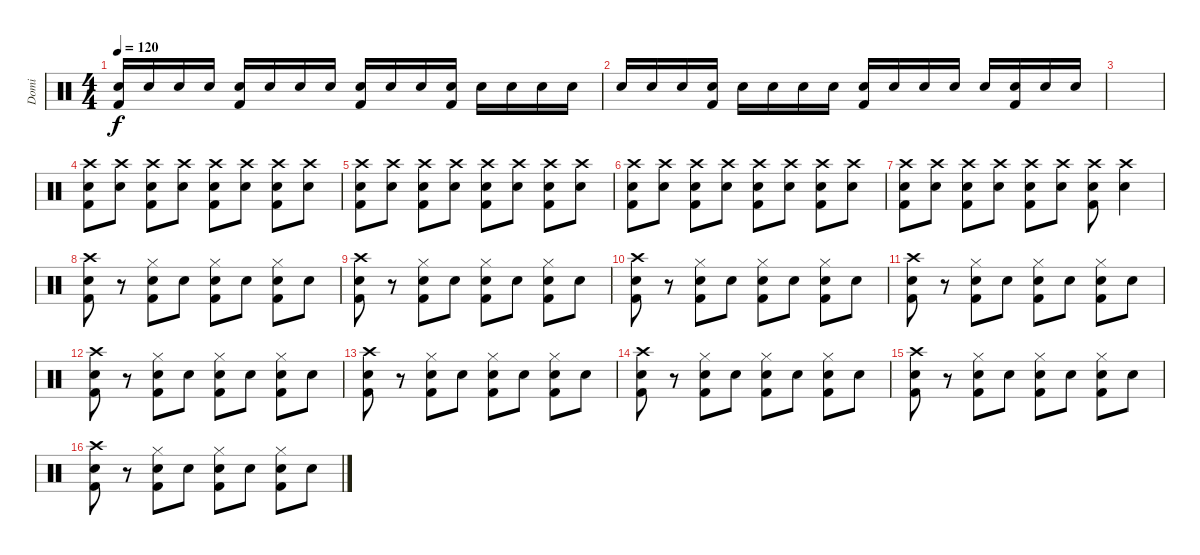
\track ("Domi" "Domi") {instrument percussion}
\staff {score}
\articulation defaults
\ts (4 4)
\tempo 120
\clef neutral
\ks c
("Snare (hit) 2" "Kick (hit) 2").16{dy f} "Snare (hit) 2".16 "Snare (hit) 2".16 "Snare (hit) 2".16 ("Snare (hit) 2" "Kick (hit) 2").16 "Snare (hit) 2".16 "Snare (hit) 2".16 "Snare (hit) 2".16 ("Snare (hit) 2" "Kick (hit) 2").16 "Snare (hit) 2".16 "Snare (hit) 2".16 ("Snare (hit) 2" "Kick (hit) 2").16 "Snare (hit) 2".16 "Snare (hit) 2".16 "Snare (hit) 2".16 "Snare (hit) 2".16 |
"Snare (hit) 2".16 "Snare (hit) 2".16 "Snare (hit) 2".16 ("Snare (hit) 2" "Kick (hit) 2").16 "Snare (hit) 2".16 "Snare (hit) 2".16 "Snare (hit) 2".16 "Snare (hit) 2".16 ("Snare (hit) 2" "Kick (hit) 2").16 "Snare (hit) 2".16 "Snare (hit) 2".16 "Snare (hit) 2".16 "Snare (hit) 2".16 ("Snare (hit) 2" "Kick (hit) 2").16 "Snare (hit) 2".16 "Snare (hit) 2".16 |
|
("Crash high (hit)" "Snare (hit) 2" "Kick (hit) 2").8 ("Crash high (hit)" "Snare (hit) 2").8 ("Crash high (hit)" "Snare (hit) 2" "Kick (hit) 2").8 ("Crash high (hit)" "Snare (hit) 2").8 ("Crash high (hit)" "Snare (hit) 2" "Kick (hit) 2").8 ("Crash high (hit)" "Snare (hit) 2").8 ("Crash high (hit)" "Snare (hit) 2" "Kick (hit) 2").8 ("Crash high (hit)" "Snare (hit) 2").8 |
("Crash high (hit)" "Snare (hit) 2" "Kick (hit) 2").8 ("Crash high (hit)" "Snare (hit) 2").8 ("Crash high (hit)" "Snare (hit) 2" "Kick (hit) 2").8 ("Crash high (hit)" "Snare (hit) 2").8 ("Crash high (hit)" "Snare (hit) 2" "Kick (hit) 2").8 ("Crash high (hit)" "Snare (hit) 2").8 ("Crash high (hit)" "Snare (hit) 2" "Kick (hit) 2").8 ("Crash high (hit)" "Snare (hit) 2").8 |
("Crash high (hit)" "Snare (hit) 2" "Kick (hit) 2").8 ("Crash high (hit)" "Snare (hit) 2").8 ("Crash high (hit)" "Snare (hit) 2" "Kick (hit) 2").8 ("Crash high (hit)" "Snare (hit) 2").8 ("Crash high (hit)" "Snare (hit) 2" "Kick (hit) 2").8 ("Crash high (hit)" "Snare (hit) 2").8 ("Crash high (hit)" "Snare (hit) 2" "Kick (hit) 2").8 ("Crash high (hit)" "Snare (hit) 2").8 |
("Crash high (hit)" "Snare (hit) 2" "Kick (hit) 2").8 ("Crash high (hit)" "Snare (hit) 2").8 ("Crash high (hit)" "Snare (hit) 2" "Kick (hit) 2").8 ("Crash high (hit)" "Snare (hit) 2").8 ("Crash high (hit)" "Snare (hit) 2" "Kick (hit) 2").8 ("Crash high (hit)" "Snare (hit) 2").8 ("Crash high (hit)" "Snare (hit) 2" "Kick (hit) 2").8 ("Crash high (hit)" "Snare (hit) 2").4 |
("Crash high (hit)" "Snare (hit) 2" "Kick (hit) 2").8 r.8 ("Hi-Hat (closed)" "Snare (hit) 2" "Kick (hit) 2").8 "Snare (hit) 2".8 ("Hi-Hat (closed)" "Snare (hit) 2" "Kick (hit) 2").8 "Snare (hit) 2".8 ("Hi-Hat (closed)" "Snare (hit) 2" "Kick (hit) 2").8 "Snare (hit) 2".8 |
("Crash high (hit)" "Snare (hit) 2" "Kick (hit) 2").8 r.8 ("Hi-Hat (closed)" "Snare (hit) 2" "Kick (hit) 2").8 "Snare (hit) 2".8 ("Hi-Hat (closed)" "Snare (hit) 2" "Kick (hit) 2").8 "Snare (hit) 2".8 ("Hi-Hat (closed)" "Snare (hit) 2" "Kick (hit) 2").8 "Snare (hit) 2".8 |
("Crash high (hit)" "Snare (hit) 2" "Kick (hit) 2").8 r.8 ("Hi-Hat (closed)" "Snare (hit) 2" "Kick (hit) 2").8 "Snare (hit) 2".8 ("Hi-Hat (closed)" "Snare (hit) 2" "Kick (hit) 2").8 "Snare (hit) 2".8 ("Hi-Hat (closed)" "Snare (hit) 2" "Kick (hit) 2").8 "Snare (hit) 2".8 |
("Crash high (hit)" "Snare (hit) 2" "Kick (hit) 2").8 r.8 ("Hi-Hat (closed)" "Snare (hit) 2" "Kick (hit) 2").8 "Snare (hit) 2".8 ("Hi-Hat (closed)" "Snare (hit) 2" "Kick (hit) 2").8 "Snare (hit) 2".8 ("Hi-Hat (closed)" "Snare (hit) 2" "Kick (hit) 2").8 "Snare (hit) 2".8 |
("Crash high (hit)" "Snare (hit) 2" "Kick (hit) 2").8 r.8 ("Hi-Hat (closed)" "Snare (hit) 2" "Kick (hit) 2").8 "Snare (hit) 2".8 ("Hi-Hat (closed)" "Snare (hit) 2" "Kick (hit) 2").8 "Snare (hit) 2".8 ("Hi-Hat (closed)" "Snare (hit) 2" "Kick (hit) 2").8 "Snare (hit) 2".8 |
("Crash high (hit)" "Snare (hit) 2" "Kick (hit) 2").8 r.8 ("Hi-Hat (closed)" "Snare (hit) 2" "Kick (hit) 2").8 "Snare (hit) 2".8 ("Hi-Hat (closed)" "Snare (hit) 2" "Kick (hit) 2").8 "Snare (hit) 2".8 ("Hi-Hat (closed)" "Snare (hit) 2" "Kick (hit) 2").8 "Snare (hit) 2".8 |
("Crash high (hit)" "Snare (hit) 2" "Kick (hit) 2").8 r.8 ("Hi-Hat (closed)" "Snare (hit) 2" "Kick (hit) 2").8 "Snare (hit) 2".8 ("Hi-Hat (closed)" "Snare (hit) 2" "Kick (hit) 2").8 "Snare (hit) 2".8 ("Hi-Hat (closed)" "Snare (hit) 2" "Kick (hit) 2").8 "Snare (hit) 2".8 |
("Crash high (hit)" "Snare (hit) 2" "Kick (hit) 2").8 r.8 ("Hi-Hat (closed)" "Snare (hit) 2" "Kick (hit) 2").8 "Snare (hit) 2".8 ("Hi-Hat (closed)" "Snare (hit) 2" "Kick (hit) 2").8 "Snare (hit) 2".8 ("Hi-Hat (closed)" "Snare (hit) 2" "Kick (hit) 2").8 "Snare (hit) 2".8 |
("Crash high (hit)" "Snare (hit) 2" "Kick (hit) 2").8 r.8 ("Hi-Hat (closed)" "Snare (hit) 2" "Kick (hit) 2").8 "Snare (hit) 2".8 ("Hi-Hat (closed)" "Snare (hit) 2" "Kick (hit) 2").8 "Snare (hit) 2".8 ("Hi-Hat (closed)" "Snare (hit) 2" "Kick (hit) 2").8 "Snare (hit) 2".8
